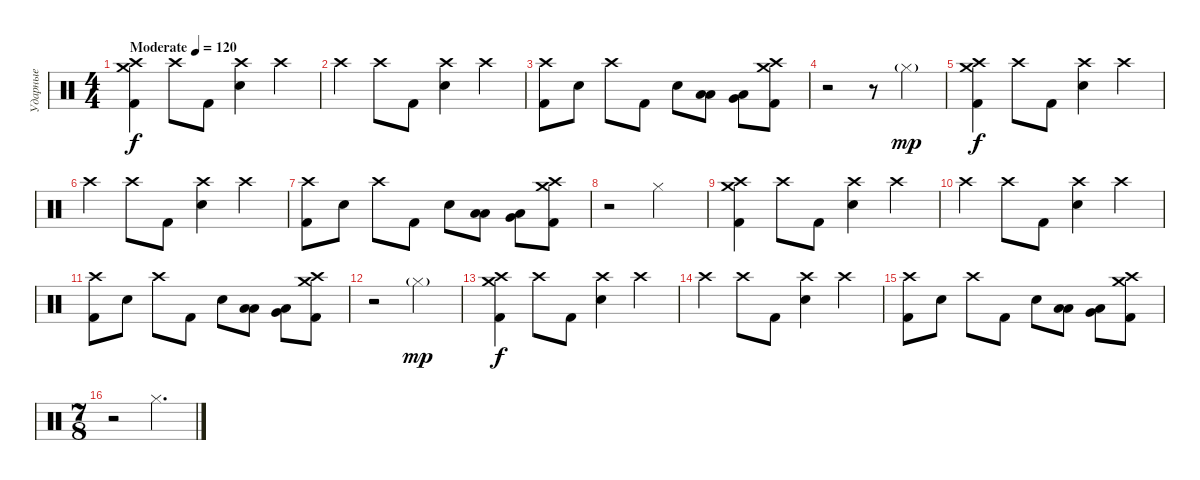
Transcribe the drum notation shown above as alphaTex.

\track ("Ударные" "Ударные") {instrument percussion}
\staff {score}
\articulation defaults
\ts (4 4)
\tempo (120 "Moderate")
\clef neutral
\ks c
("Crash high (hit)" "Crash medium (hit)" "Kick (hit) 2").4{dy f} "Crash high (hit)".8 "Kick (hit) 2".8 ("Crash high (hit)" "Electric Snare (hit)").4 "Crash high (hit)".4 |
"Crash high (hit)".4 "Crash high (hit)".8 "Kick (hit) 2".8 ("Crash high (hit)" "Electric Snare (hit)").4 "Crash high (hit)".4 |
("Crash high (hit)" "Kick (hit) 2").8 "Electric Snare (hit)".8 "Crash high (hit)".8 "Kick (hit) 2".8 "Electric Snare (hit)".8 ("Low Tom (hit)" "Low Floor Tom (hit)").8 ("Very Low Tom (hit)" "Low Floor Tom (hit)").8 ("Crash medium (hit)" "Crash high (hit)" "Kick (hit) 2").8 |
r.2 r.8 "Hi-Hat (closed)"{g}.4{dy mp} |
("Crash high (hit)" "Crash medium (hit)" "Kick (hit) 2").4{dy f} "Crash high (hit)".8 "Kick (hit) 2".8 ("Crash high (hit)" "Electric Snare (hit)").4 "Crash high (hit)".4 |
"Crash high (hit)".4 "Crash high (hit)".8 "Kick (hit) 2".8 ("Crash high (hit)" "Electric Snare (hit)").4 "Crash high (hit)".4 |
("Crash high (hit)" "Kick (hit) 2").8 "Electric Snare (hit)".8 "Crash high (hit)".8 "Kick (hit) 2".8 "Electric Snare (hit)".8 ("Low Tom (hit)" "Low Floor Tom (hit)").8 ("Very Low Tom (hit)" "Low Floor Tom (hit)").8 ("Crash medium (hit)" "Crash high (hit)" "Kick (hit) 2").8 |
r.2 "Hi-Hat (closed)".2 |
("Crash high (hit)" "Crash medium (hit)" "Kick (hit) 2").4 "Crash high (hit)".8 "Kick (hit) 2".8 ("Crash high (hit)" "Electric Snare (hit)").4 "Crash high (hit)".4 |
"Crash high (hit)".4 "Crash high (hit)".8 "Kick (hit) 2".8 ("Crash high (hit)" "Electric Snare (hit)").4 "Crash high (hit)".4 |
("Crash high (hit)" "Kick (hit) 2").8 "Electric Snare (hit)".8 "Crash high (hit)".8 "Kick (hit) 2".8 "Electric Snare (hit)".8 ("Low Tom (hit)" "Low Floor Tom (hit)").8 ("Very Low Tom (hit)" "Low Floor Tom (hit)").8 ("Crash medium (hit)" "Crash high (hit)" "Kick (hit) 2").8 |
r.2 "Hi-Hat (closed)"{g}.2{dy mp} |
("Crash high (hit)" "Crash medium (hit)" "Kick (hit) 2").4{dy f} "Crash high (hit)".8 "Kick (hit) 2".8 ("Crash high (hit)" "Electric Snare (hit)").4 "Crash high (hit)".4 |
"Crash high (hit)".4 "Crash high (hit)".8 "Kick (hit) 2".8 ("Crash high (hit)" "Electric Snare (hit)").4 "Crash high (hit)".4 |
("Crash high (hit)" "Kick (hit) 2").8 "Electric Snare (hit)".8 "Crash high (hit)".8 "Kick (hit) 2".8 "Electric Snare (hit)".8 ("Low Tom (hit)" "Low Floor Tom (hit)").8 ("Very Low Tom (hit)" "Low Floor Tom (hit)").8 ("Crash medium (hit)" "Crash high (hit)" "Kick (hit) 2").8 |
\ts (7 8)
r.2 "Hi-Hat (closed)".4{d}
